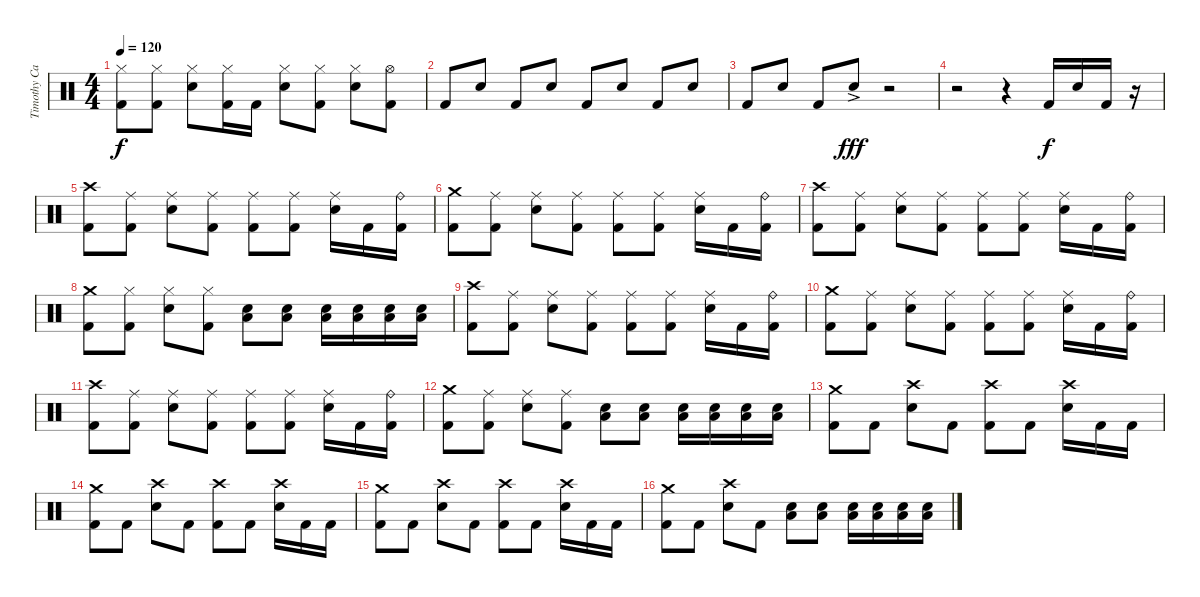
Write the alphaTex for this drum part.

\track ("Timothy Calkin" "Timothy Ca") {instrument percussion}
\staff {score}
\articulation defaults
\ts (4 4)
\tempo 120
\clef neutral
\ks c
("Hi-Hat (closed)" "Kick (hit) 2").8{dy f} ("Hi-Hat (closed)" "Kick (hit) 2").8 ("Hi-Hat (closed)" "Snare (hit) 2").8 ("Hi-Hat (closed)" "Kick (hit) 2").16 "Kick (hit) 2".16 ("Hi-Hat (closed)" "Snare (hit) 2").8 ("Hi-Hat (closed)" "Kick (hit) 2").8 ("Hi-Hat (closed)" "Snare (hit) 2").8 ("Hi-Hat (open)" "Kick (hit) 2").8 |
"Kick (hit) 2".8 "Snare (hit) 2".8 "Kick (hit) 2".8 "Snare (hit) 2".8 "Kick (hit) 2".8 "Snare (hit) 2".8 "Kick (hit) 2".8 "Snare (hit) 2".8 |
"Kick (hit) 2".8 "Snare (hit) 2".8 "Kick (hit) 2".8 "Snare (hit) 2"{ac}.8{dy fff} r.2 |
r.2 r.4 "Kick (hit) 2".16{dy f} "Snare (hit) 2".16 "Kick (hit) 2".16 r.16 |
("Crash high (hit)" "Kick (hit) 2").8 ("Ride (middle)" "Kick (hit) 2").8 ("Ride (middle)" "Snare (hit) 2").8 ("Ride (middle)" "Kick (hit) 2").8 ("Ride (middle)" "Kick (hit) 2").8 ("Ride (middle)" "Kick (hit) 2").8 ("Ride (middle)" "Snare (hit) 2").16 "Kick (hit) 2".16 ("Ride (bell)" "Kick (hit) 2").16 |
("Crash medium (hit)" "Kick (hit) 2").8 ("Ride (middle)" "Kick (hit) 2").8 ("Ride (middle)" "Snare (hit) 2").8 ("Ride (middle)" "Kick (hit) 2").8 ("Ride (middle)" "Kick (hit) 2").8 ("Ride (middle)" "Kick (hit) 2").8 ("Ride (middle)" "Snare (hit) 2").16 "Kick (hit) 2".16 ("Ride (bell)" "Kick (hit) 2").16 |
("Crash high (hit)" "Kick (hit) 2").8 ("Ride (middle)" "Kick (hit) 2").8 ("Ride (middle)" "Snare (hit) 2").8 ("Ride (middle)" "Kick (hit) 2").8 ("Ride (middle)" "Kick (hit) 2").8 ("Ride (middle)" "Kick (hit) 2").8 ("Ride (middle)" "Snare (hit) 2").16 "Kick (hit) 2".16 ("Ride (bell)" "Kick (hit) 2").16 |
("Crash medium (hit)" "Kick (hit) 2").8 ("Hi-Hat (closed)" "Kick (hit) 2").8 ("Hi-Hat (closed)" "Snare (hit) 2").8 ("Hi-Hat (closed)" "Kick (hit) 2").8 ("Snare (hit) 2" "Low Floor Tom (hit)").8 ("Snare (hit) 2" "Low Floor Tom (hit)").8 ("Snare (hit) 2" "Low Floor Tom (hit)").16 ("Snare (hit) 2" "Low Floor Tom (hit)").16 ("Snare (hit) 2" "Low Floor Tom (hit)").16 ("Snare (hit) 2" "Low Floor Tom (hit)").16 |
("Crash high (hit)" "Kick (hit) 2").8 ("Ride (middle)" "Kick (hit) 2").8 ("Ride (middle)" "Snare (hit) 2").8 ("Ride (middle)" "Kick (hit) 2").8 ("Ride (middle)" "Kick (hit) 2").8 ("Ride (middle)" "Kick (hit) 2").8 ("Ride (middle)" "Snare (hit) 2").16 "Kick (hit) 2".16 ("Ride (bell)" "Kick (hit) 2").16 |
("Crash medium (hit)" "Kick (hit) 2").8 ("Ride (middle)" "Kick (hit) 2").8 ("Ride (middle)" "Snare (hit) 2").8 ("Ride (middle)" "Kick (hit) 2").8 ("Ride (middle)" "Kick (hit) 2").8 ("Ride (middle)" "Kick (hit) 2").8 ("Ride (middle)" "Snare (hit) 2").16 "Kick (hit) 2".16 ("Ride (bell)" "Kick (hit) 2").16 |
("Crash high (hit)" "Kick (hit) 2").8 ("Ride (middle)" "Kick (hit) 2").8 ("Ride (middle)" "Snare (hit) 2").8 ("Ride (middle)" "Kick (hit) 2").8 ("Ride (middle)" "Kick (hit) 2").8 ("Ride (middle)" "Kick (hit) 2").8 ("Ride (middle)" "Snare (hit) 2").16 "Kick (hit) 2".16 ("Ride (bell)" "Kick (hit) 2").16 |
("Crash medium (hit)" "Kick (hit) 2").8 ("Ride (middle)" "Kick (hit) 2").8 ("Ride (middle)" "Snare (hit) 2").8 ("Ride (middle)" "Kick (hit) 2").8 ("Snare (hit) 2" "Low Floor Tom (hit)").8 ("Snare (hit) 2" "Low Floor Tom (hit)").8 ("Snare (hit) 2" "Low Floor Tom (hit)").16 ("Snare (hit) 2" "Low Floor Tom (hit)").16 ("Snare (hit) 2" "Low Floor Tom (hit)").16 ("Snare (hit) 2" "Low Floor Tom (hit)").16 |
("Crash medium (hit)" "Kick (hit) 2").8 "Kick (hit) 2".8 ("Crash high (hit)" "Snare (hit) 2").8 "Kick (hit) 2".8 ("Crash high (hit)" "Kick (hit) 2").8 "Kick (hit) 2".8 ("Crash high (hit)" "Snare (hit) 2").16 "Kick (hit) 2".16 "Kick (hit) 2".16 |
("Crash medium (hit)" "Kick (hit) 2").8 "Kick (hit) 2".8 ("Crash high (hit)" "Snare (hit) 2").8 "Kick (hit) 2".8 ("Crash high (hit)" "Kick (hit) 2").8 "Kick (hit) 2".8 ("Crash high (hit)" "Snare (hit) 2").16 "Kick (hit) 2".16 "Kick (hit) 2".16 |
("Crash medium (hit)" "Kick (hit) 2").8 "Kick (hit) 2".8 ("Crash high (hit)" "Snare (hit) 2").8 "Kick (hit) 2".8 ("Crash high (hit)" "Kick (hit) 2").8 "Kick (hit) 2".8 ("Crash high (hit)" "Snare (hit) 2").16 "Kick (hit) 2".16 "Kick (hit) 2".16 |
("Crash medium (hit)" "Kick (hit) 2").8 "Kick (hit) 2".8 ("Crash high (hit)" "Snare (hit) 2").8 "Kick (hit) 2".8 ("Snare (hit) 2" "Low Floor Tom (hit)").8 ("Snare (hit) 2" "Low Floor Tom (hit)").8 ("Snare (hit) 2" "Low Floor Tom (hit)").16 ("Snare (hit) 2" "Low Floor Tom (hit)").16 ("Snare (hit) 2" "Low Floor Tom (hit)").16 ("Snare (hit) 2" "Low Floor Tom (hit)").16
